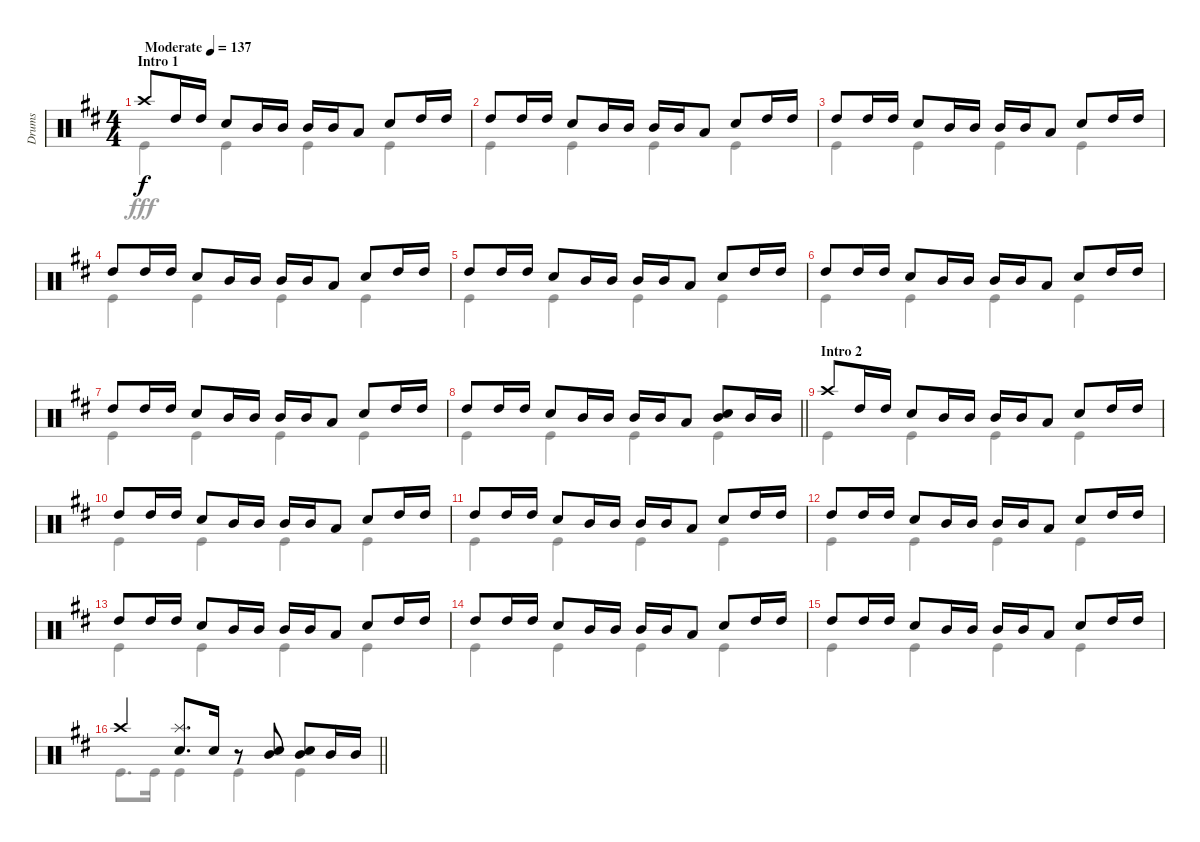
\track ("Drums" "Drums") {instrument percussion}
\staff {score}
\articulation defaults
\voice
\ts (4 4)
\section ("" "Intro 1")
\tempo (137 "Moderate")
\clef neutral
\ks d "Crash high (hit)".8{dy f} "High Tom (hit)".16 "High Tom (hit)".16 "Snare (hit) 2".8 "Mid Tom (hit)".16 "Mid Tom (hit)".16 "Mid Tom (hit)".16 "Mid Tom (hit)".16 "Low Tom (hit)".8 "Snare (hit) 2".8 "High Tom (hit)".16 "High Tom (hit)".16
|
"High Tom (hit)".8 "High Tom (hit)".16 "High Tom (hit)".16 "Snare (hit) 2".8 "Mid Tom (hit)".16 "Mid Tom (hit)".16 "Mid Tom (hit)".16 "Mid Tom (hit)".16 "Low Tom (hit)".8 "Snare (hit) 2".8 "High Tom (hit)".16 "High Tom (hit)".16 |
"High Tom (hit)".8 "High Tom (hit)".16 "High Tom (hit)".16 "Snare (hit) 2".8 "Mid Tom (hit)".16 "Mid Tom (hit)".16 "Mid Tom (hit)".16 "Mid Tom (hit)".16 "Low Tom (hit)".8 "Snare (hit) 2".8 "High Tom (hit)".16 "High Tom (hit)".16 |
"High Tom (hit)".8 "High Tom (hit)".16 "High Tom (hit)".16 "Snare (hit) 2".8 "Mid Tom (hit)".16 "Mid Tom (hit)".16 "Mid Tom (hit)".16 "Mid Tom (hit)".16 "Low Tom (hit)".8 "Snare (hit) 2".8 "High Tom (hit)".16 "High Tom (hit)".16 |
"High Tom (hit)".8 "High Tom (hit)".16 "High Tom (hit)".16 "Snare (hit) 2".8 "Mid Tom (hit)".16 "Mid Tom (hit)".16 "Mid Tom (hit)".16 "Mid Tom (hit)".16 "Low Tom (hit)".8 "Snare (hit) 2".8 "High Tom (hit)".16 "High Tom (hit)".16 |
"High Tom (hit)".8 "High Tom (hit)".16 "High Tom (hit)".16 "Snare (hit) 2".8 "Mid Tom (hit)".16 "Mid Tom (hit)".16 "Mid Tom (hit)".16 "Mid Tom (hit)".16 "Low Tom (hit)".8 "Snare (hit) 2".8 "High Tom (hit)".16 "High Tom (hit)".16 |
"High Tom (hit)".8 "High Tom (hit)".16 "High Tom (hit)".16 "Snare (hit) 2".8 "Mid Tom (hit)".16 "Mid Tom (hit)".16 "Mid Tom (hit)".16 "Mid Tom (hit)".16 "Low Tom (hit)".8 "Snare (hit) 2".8 "High Tom (hit)".16 "High Tom (hit)".16 |
\barLineRight lightlight "High Tom (hit)".8 "High Tom (hit)".16 "High Tom (hit)".16 "Snare (hit) 2".8 "Mid Tom (hit)".16 "Mid Tom (hit)".16 "Mid Tom (hit)".16 "Mid Tom (hit)".16 "Low Tom (hit)".8
("Snare (hit) 2" "Mid Tom (hit)").8 "Mid Tom (hit)".16 "Mid Tom (hit)".16 |
\section ("" "Intro 2")
"Crash high (hit)".8 "High Tom (hit)".16 "High Tom (hit)".16 "Snare (hit) 2".8 "Mid Tom (hit)".16 "Mid Tom (hit)".16 "Mid Tom (hit)".16 "Mid Tom (hit)".16 "Low Tom (hit)".8 "Snare (hit) 2".8 "High Tom (hit)".16 "High Tom (hit)".16 |
"High Tom (hit)".8 "High Tom (hit)".16 "High Tom (hit)".16 "Snare (hit) 2".8 "Mid Tom (hit)".16 "Mid Tom (hit)".16 "Mid Tom (hit)".16 "Mid Tom (hit)".16 "Low Tom (hit)".8 "Snare (hit) 2".8 "High Tom (hit)".16 "High Tom (hit)".16 |
"High Tom (hit)".8 "High Tom (hit)".16 "High Tom (hit)".16 "Snare (hit) 2".8 "Mid Tom (hit)".16 "Mid Tom (hit)".16 "Mid Tom (hit)".16 "Mid Tom (hit)".16 "Low Tom (hit)".8 "Snare (hit) 2".8 "High Tom (hit)".16 "High Tom (hit)".16 |
"High Tom (hit)".8 "High Tom (hit)".16 "High Tom (hit)".16 "Snare (hit) 2".8 "Mid Tom (hit)".16 "Mid Tom (hit)".16 "Mid Tom (hit)".16 "Mid Tom (hit)".16 "Low Tom (hit)".8 "Snare (hit) 2".8 "High Tom (hit)".16 "High Tom (hit)".16 |
"High Tom (hit)".8 "High Tom (hit)".16 "High Tom (hit)".16 "Snare (hit) 2".8 "Mid Tom (hit)".16 "Mid Tom (hit)".16 "Mid Tom (hit)".16 "Mid Tom (hit)".16 "Low Tom (hit)".8 "Snare (hit) 2".8 "High Tom (hit)".16 "High Tom (hit)".16 |
"High Tom (hit)".8 "High Tom (hit)".16 "High Tom (hit)".16 "Snare (hit) 2".8 "Mid Tom (hit)".16 "Mid Tom (hit)".16 "Mid Tom (hit)".16 "Mid Tom (hit)".16 "Low Tom (hit)".8 "Snare (hit) 2".8 "High Tom (hit)".16 "High Tom (hit)".16 |
"High Tom (hit)".8 "High Tom (hit)".16 "High Tom (hit)".16 "Snare (hit) 2".8 "Mid Tom (hit)".16 "Mid Tom (hit)".16 "Mid Tom (hit)".16 "Mid Tom (hit)".16 "Low Tom (hit)".8 "Snare (hit) 2".8 "High Tom (hit)".16 "High Tom (hit)".16 |
\barLineRight lightlight "Crash high (hit)".4
("Splash (hit)" "Snare (hit) 2").8{d} "Snare (hit) 2".16 r.8 ("Mid Tom (hit)" "Snare (hit) 2").8 ("Mid Tom (hit)" "Snare (hit) 2").8 "Mid Tom (hit)".16 "Mid Tom (hit)".16
\voice
\clef neutral
\ottava regular
\simile none
\ks d "Kick (hit)".4{dy fff} "Kick (hit)".4 "Kick (hit)".4 "Kick (hit)".4
|
"Kick (hit)".4 "Kick (hit)".4 "Kick (hit)".4 "Kick (hit)".4 |
"Kick (hit)".4 "Kick (hit)".4 "Kick (hit)".4 "Kick (hit)".4 |
"Kick (hit)".4 "Kick (hit)".4 "Kick (hit)".4 "Kick (hit)".4 |
"Kick (hit)".4 "Kick (hit)".4 "Kick (hit)".4 "Kick (hit)".4 |
"Kick (hit)".4 "Kick (hit)".4 "Kick (hit)".4 "Kick (hit)".4 |
"Kick (hit)".4 "Kick (hit)".4 "Kick (hit)".4 "Kick (hit)".4 |
\barLineRight lightlight "Kick (hit)".4 "Kick (hit)".4 "Kick (hit)".4 "Kick (hit)".4
|
"Kick (hit)".4 "Kick (hit)".4 "Kick (hit)".4 "Kick (hit)".4 |
"Kick (hit)".4 "Kick (hit)".4 "Kick (hit)".4 "Kick (hit)".4 |
"Kick (hit)".4 "Kick (hit)".4 "Kick (hit)".4 "Kick (hit)".4 |
"Kick (hit)".4 "Kick (hit)".4 "Kick (hit)".4 "Kick (hit)".4 |
"Kick (hit)".4 "Kick (hit)".4 "Kick (hit)".4 "Kick (hit)".4 |
"Kick (hit)".4 "Kick (hit)".4 "Kick (hit)".4 "Kick (hit)".4 |
"Kick (hit)".4 "Kick (hit)".4 "Kick (hit)".4 "Kick (hit)".4 |
\barLineRight lightlight "Kick (hit)".8{d} "Kick (hit)".16 "Kick (hit)".4 "Kick (hit)".4 "Kick (hit)".4
